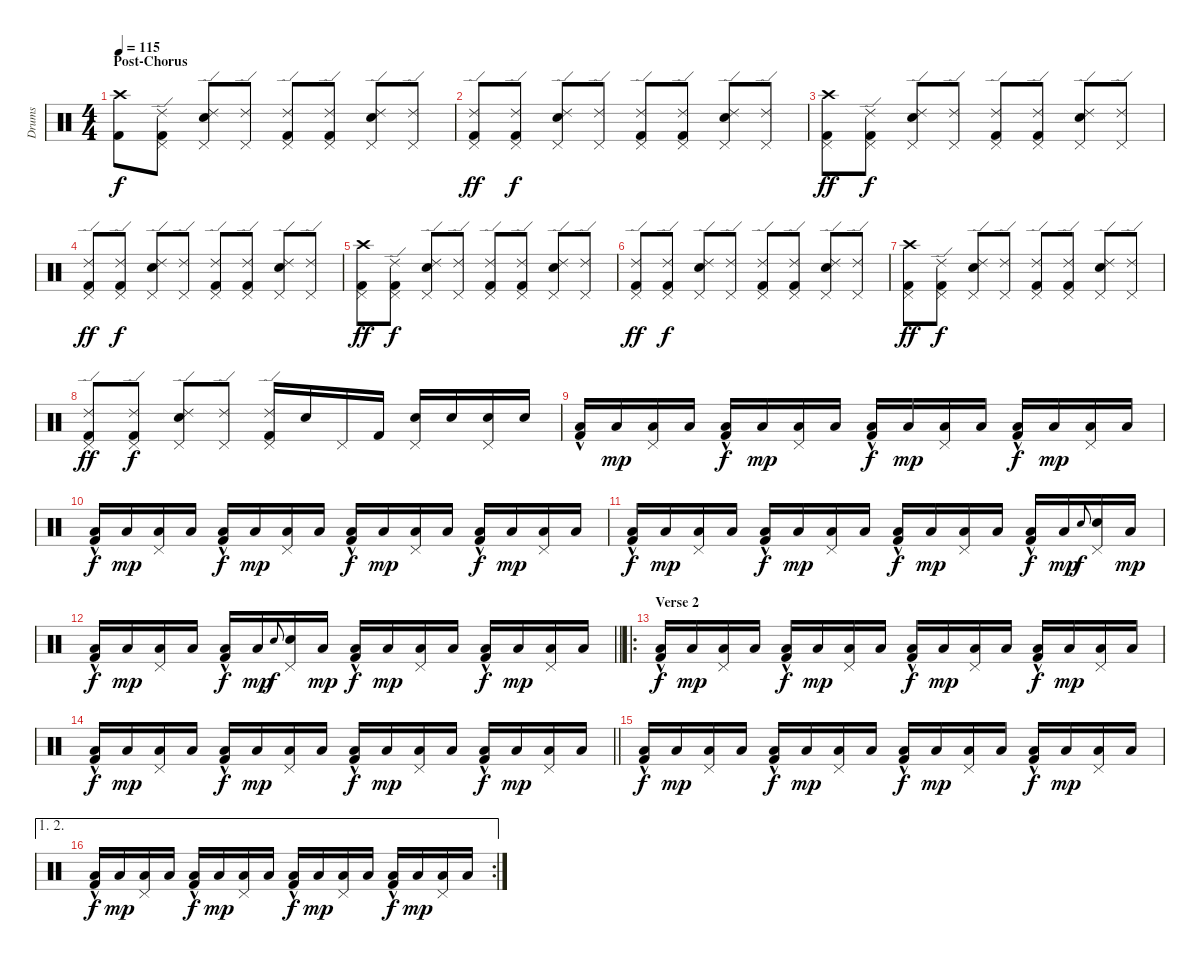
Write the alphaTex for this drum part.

\track ("Drums" "Drums") {instrument percussion}
\staff {score}
\articulation defaults
\ts (4 4)
\section ("" "Post-Chorus")
\tempo 115
\clef neutral
\ks c
("Crash high (hit)" "Kick (hit) 2").8{dy f} ("Pedal Hi-Hat (hit)" "Ride (edge) 2" "Kick (hit) 2").8 ("Pedal Hi-Hat (hit)" "Ride (edge) 2" "Snare (hit) 2").8 ("Pedal Hi-Hat (hit)" "Ride (edge) 2").8 ("Pedal Hi-Hat (hit)" "Ride (edge) 2" "Kick (hit) 2").8 ("Pedal Hi-Hat (hit)" "Ride (edge) 2" "Kick (hit) 2").8 ("Pedal Hi-Hat (hit)" "Ride (edge) 2" "Snare (hit) 2").8 ("Pedal Hi-Hat (hit)" "Ride (edge) 2").8 |
("Pedal Hi-Hat (hit)" "Ride (edge) 2" "Kick (hit) 2").8{dy ff} ("Pedal Hi-Hat (hit)" "Ride (edge) 2" "Kick (hit) 2").8{dy f} ("Pedal Hi-Hat (hit)" "Ride (edge) 2" "Snare (hit) 2").8 ("Pedal Hi-Hat (hit)" "Ride (edge) 2").8 ("Pedal Hi-Hat (hit)" "Ride (edge) 2" "Kick (hit) 2").8 ("Pedal Hi-Hat (hit)" "Ride (edge) 2" "Kick (hit) 2").8 ("Pedal Hi-Hat (hit)" "Ride (edge) 2" "Snare (hit) 2").8 ("Pedal Hi-Hat (hit)" "Ride (edge) 2").8 |
("Crash high (hit)" "Pedal Hi-Hat (hit)" "Kick (hit) 2").8{dy ff} ("Pedal Hi-Hat (hit)" "Ride (edge) 2" "Kick (hit) 2").8{dy f} ("Pedal Hi-Hat (hit)" "Ride (edge) 2" "Snare (hit) 2").8 ("Pedal Hi-Hat (hit)" "Ride (edge) 2").8 ("Pedal Hi-Hat (hit)" "Ride (edge) 2" "Kick (hit) 2").8 ("Pedal Hi-Hat (hit)" "Ride (edge) 2" "Kick (hit) 2").8 ("Pedal Hi-Hat (hit)" "Ride (edge) 2" "Snare (hit) 2").8 ("Pedal Hi-Hat (hit)" "Ride (edge) 2").8 |
("Pedal Hi-Hat (hit)" "Ride (edge) 2" "Kick (hit) 2").8{dy ff} ("Pedal Hi-Hat (hit)" "Ride (edge) 2" "Kick (hit) 2").8{dy f} ("Pedal Hi-Hat (hit)" "Ride (edge) 2" "Snare (hit) 2").8 ("Pedal Hi-Hat (hit)" "Ride (edge) 2").8 ("Pedal Hi-Hat (hit)" "Ride (edge) 2" "Kick (hit) 2").8 ("Pedal Hi-Hat (hit)" "Ride (edge) 2" "Kick (hit) 2").8 ("Pedal Hi-Hat (hit)" "Ride (edge) 2" "Snare (hit) 2").8 ("Pedal Hi-Hat (hit)" "Ride (edge) 2").8 |
("Crash high (hit)" "Pedal Hi-Hat (hit)" "Kick (hit) 2").8{dy ff} ("Pedal Hi-Hat (hit)" "Ride (edge) 2" "Kick (hit) 2").8{dy f} ("Pedal Hi-Hat (hit)" "Ride (edge) 2" "Snare (hit) 2").8 ("Pedal Hi-Hat (hit)" "Ride (edge) 2").8 ("Pedal Hi-Hat (hit)" "Ride (edge) 2" "Kick (hit) 2").8 ("Pedal Hi-Hat (hit)" "Ride (edge) 2" "Kick (hit) 2").8 ("Pedal Hi-Hat (hit)" "Ride (edge) 2" "Snare (hit) 2").8 ("Pedal Hi-Hat (hit)" "Ride (edge) 2").8 |
("Pedal Hi-Hat (hit)" "Ride (edge) 2" "Kick (hit) 2").8{dy ff} ("Pedal Hi-Hat (hit)" "Ride (edge) 2" "Kick (hit) 2").8{dy f} ("Pedal Hi-Hat (hit)" "Ride (edge) 2" "Snare (hit) 2").8 ("Pedal Hi-Hat (hit)" "Ride (edge) 2").8 ("Pedal Hi-Hat (hit)" "Ride (edge) 2" "Kick (hit) 2").8 ("Pedal Hi-Hat (hit)" "Ride (edge) 2" "Kick (hit) 2").8 ("Pedal Hi-Hat (hit)" "Ride (edge) 2" "Snare (hit) 2").8 ("Pedal Hi-Hat (hit)" "Ride (edge) 2").8 |
("Crash high (hit)" "Pedal Hi-Hat (hit)" "Kick (hit) 2").8{dy ff} ("Pedal Hi-Hat (hit)" "Ride (edge) 2" "Kick (hit) 2").8{dy f} ("Pedal Hi-Hat (hit)" "Ride (edge) 2" "Snare (hit) 2").8 ("Pedal Hi-Hat (hit)" "Ride (edge) 2").8 ("Pedal Hi-Hat (hit)" "Ride (edge) 2" "Kick (hit) 2").8 ("Pedal Hi-Hat (hit)" "Ride (edge) 2" "Kick (hit) 2").8 ("Pedal Hi-Hat (hit)" "Ride (edge) 2" "Snare (hit) 2").8 ("Pedal Hi-Hat (hit)" "Ride (edge) 2").8 |
("Pedal Hi-Hat (hit)" "Ride (edge) 2" "Kick (hit) 2").8{dy ff} ("Pedal Hi-Hat (hit)" "Ride (edge) 2" "Kick (hit) 2").8{dy f} ("Pedal Hi-Hat (hit)" "Ride (edge) 2" "Snare (hit) 2").8 ("Pedal Hi-Hat (hit)" "Ride (edge) 2").8 ("Pedal Hi-Hat (hit)" "Ride (edge) 2" "Kick (hit) 2").16 "Snare (hit) 2".16 "Pedal Hi-Hat (hit)".16 "Kick (hit) 2".16 ("Pedal Hi-Hat (hit)" "Snare (hit) 2").16 "Snare (hit) 2".16 ("Pedal Hi-Hat (hit)" "Snare (hit) 2").16 "Snare (hit) 2".16 |
("Low Floor Tom (hit)"{hac} "Kick (hit) 2").16 "Low Floor Tom (hit)".16{dy mp} ("Pedal Hi-Hat (hit)" "Low Floor Tom (hit)").16 "Low Floor Tom (hit)".16 ("Low Floor Tom (hit)"{hac} "Kick (hit) 2").16{dy f} "Low Floor Tom (hit)".16{dy mp} ("Pedal Hi-Hat (hit)" "Low Floor Tom (hit)").16 "Low Floor Tom (hit)".16 ("Low Floor Tom (hit)"{hac} "Kick (hit) 2").16{dy f} "Low Floor Tom (hit)".16{dy mp} ("Pedal Hi-Hat (hit)" "Low Floor Tom (hit)").16 "Low Floor Tom (hit)".16 ("Low Floor Tom (hit)"{hac} "Kick (hit) 2").16{dy f} "Low Floor Tom (hit)".16{dy mp} ("Pedal Hi-Hat (hit)" "Low Floor Tom (hit)").16 "Low Floor Tom (hit)".16 |
("Low Floor Tom (hit)"{hac} "Kick (hit) 2").16{dy f} "Low Floor Tom (hit)".16{dy mp} ("Pedal Hi-Hat (hit)" "Low Floor Tom (hit)").16 "Low Floor Tom (hit)".16 ("Low Floor Tom (hit)"{hac} "Kick (hit) 2").16{dy f} "Low Floor Tom (hit)".16{dy mp} ("Pedal Hi-Hat (hit)" "Low Floor Tom (hit)").16 "Low Floor Tom (hit)".16 ("Low Floor Tom (hit)"{hac} "Kick (hit) 2").16{dy f} "Low Floor Tom (hit)".16{dy mp} ("Pedal Hi-Hat (hit)" "Low Floor Tom (hit)").16 "Low Floor Tom (hit)".16 ("Low Floor Tom (hit)"{hac} "Kick (hit) 2").16{dy f} "Low Floor Tom (hit)".16{dy mp} ("Pedal Hi-Hat (hit)" "Low Floor Tom (hit)").16 "Low Floor Tom (hit)".16 |
("Low Floor Tom (hit)"{hac} "Kick (hit) 2").16{dy f} "Low Floor Tom (hit)".16{dy mp} ("Pedal Hi-Hat (hit)" "Low Floor Tom (hit)").16 "Low Floor Tom (hit)".16 ("Low Floor Tom (hit)"{hac} "Kick (hit) 2").16{dy f} "Low Floor Tom (hit)".16{dy mp} ("Pedal Hi-Hat (hit)" "Low Floor Tom (hit)").16 "Low Floor Tom (hit)".16 ("Low Floor Tom (hit)"{hac} "Kick (hit) 2").16{dy f} "Low Floor Tom (hit)".16{dy mp} ("Pedal Hi-Hat (hit)" "Low Floor Tom (hit)").16 "Low Floor Tom (hit)".16 ("Low Floor Tom (hit)"{hac} "Kick (hit) 2").16{dy f} "Low Floor Tom (hit)".16{dy mp} "Snare (hit) 2".8{gr onbeat dy f} ("Pedal Hi-Hat (hit)" "Snare (hit) 2").16 "Low Floor Tom (hit)".16{dy mp} |
\barLineRight lightlight
("Low Floor Tom (hit)"{hac} "Kick (hit) 2").16{dy f} "Low Floor Tom (hit)".16{dy mp} ("Pedal Hi-Hat (hit)" "Low Floor Tom (hit)").16 "Low Floor Tom (hit)".16 ("Low Floor Tom (hit)"{hac} "Kick (hit) 2").16{dy f} "Low Floor Tom (hit)".16{dy mp} "Snare (hit) 2".8{gr onbeat dy f} ("Pedal Hi-Hat (hit)" "Snare (hit) 2").16 "Low Floor Tom (hit)".16{dy mp} ("Low Floor Tom (hit)"{hac} "Kick (hit) 2").16{dy f} "Low Floor Tom (hit)".16{dy mp} ("Pedal Hi-Hat (hit)" "Low Floor Tom (hit)").16 "Low Floor Tom (hit)".16 ("Low Floor Tom (hit)"{hac} "Kick (hit) 2").16{dy f} "Low Floor Tom (hit)".16{dy mp} ("Pedal Hi-Hat (hit)" "Low Floor Tom (hit)").16 "Low Floor Tom (hit)".16 |
\ro
\section ("" "Verse 2")
("Low Floor Tom (hit)"{hac} "Kick (hit) 2").16{dy f} "Low Floor Tom (hit)".16{dy mp} ("Pedal Hi-Hat (hit)" "Low Floor Tom (hit)").16 "Low Floor Tom (hit)".16 ("Low Floor Tom (hit)"{hac} "Kick (hit) 2").16{dy f} "Low Floor Tom (hit)".16{dy mp} ("Pedal Hi-Hat (hit)" "Low Floor Tom (hit)").16 "Low Floor Tom (hit)".16 ("Low Floor Tom (hit)"{hac} "Kick (hit) 2").16{dy f} "Low Floor Tom (hit)".16{dy mp} ("Pedal Hi-Hat (hit)" "Low Floor Tom (hit)").16 "Low Floor Tom (hit)".16 ("Low Floor Tom (hit)"{hac} "Kick (hit) 2").16{dy f} "Low Floor Tom (hit)".16{dy mp} ("Pedal Hi-Hat (hit)" "Low Floor Tom (hit)").16 "Low Floor Tom (hit)".16 |
\barLineRight lightlight
("Low Floor Tom (hit)"{hac} "Kick (hit) 2").16{dy f} "Low Floor Tom (hit)".16{dy mp} ("Pedal Hi-Hat (hit)" "Low Floor Tom (hit)").16 "Low Floor Tom (hit)".16 ("Low Floor Tom (hit)"{hac} "Kick (hit) 2").16{dy f} "Low Floor Tom (hit)".16{dy mp} ("Pedal Hi-Hat (hit)" "Low Floor Tom (hit)").16 "Low Floor Tom (hit)".16 ("Low Floor Tom (hit)"{hac} "Kick (hit) 2").16{dy f} "Low Floor Tom (hit)".16{dy mp} ("Pedal Hi-Hat (hit)" "Low Floor Tom (hit)").16 "Low Floor Tom (hit)".16 ("Low Floor Tom (hit)"{hac} "Kick (hit) 2").16{dy f} "Low Floor Tom (hit)".16{dy mp} ("Pedal Hi-Hat (hit)" "Low Floor Tom (hit)").16 "Low Floor Tom (hit)".16 |
("Low Floor Tom (hit)"{hac} "Kick (hit) 2").16{dy f} "Low Floor Tom (hit)".16{dy mp} ("Pedal Hi-Hat (hit)" "Low Floor Tom (hit)").16 "Low Floor Tom (hit)".16 ("Low Floor Tom (hit)"{hac} "Kick (hit) 2").16{dy f} "Low Floor Tom (hit)".16{dy mp} ("Pedal Hi-Hat (hit)" "Low Floor Tom (hit)").16 "Low Floor Tom (hit)".16 ("Low Floor Tom (hit)"{hac} "Kick (hit) 2").16{dy f} "Low Floor Tom (hit)".16{dy mp} ("Pedal Hi-Hat (hit)" "Low Floor Tom (hit)").16 "Low Floor Tom (hit)".16 ("Low Floor Tom (hit)"{hac} "Kick (hit) 2").16{dy f} "Low Floor Tom (hit)".16{dy mp} ("Pedal Hi-Hat (hit)" "Low Floor Tom (hit)").16 "Low Floor Tom (hit)".16 |
\ae (1 2)
\rc 2
("Low Floor Tom (hit)"{hac} "Kick (hit) 2").16{dy f} "Low Floor Tom (hit)".16{dy mp} ("Pedal Hi-Hat (hit)" "Low Floor Tom (hit)").16 "Low Floor Tom (hit)".16 ("Low Floor Tom (hit)"{hac} "Kick (hit) 2").16{dy f} "Low Floor Tom (hit)".16{dy mp} ("Pedal Hi-Hat (hit)" "Low Floor Tom (hit)").16 "Low Floor Tom (hit)".16 ("Low Floor Tom (hit)"{hac} "Kick (hit) 2").16{dy f} "Low Floor Tom (hit)".16{dy mp} ("Pedal Hi-Hat (hit)" "Low Floor Tom (hit)").16 "Low Floor Tom (hit)".16 ("Low Floor Tom (hit)"{hac} "Kick (hit) 2").16{dy f} "Low Floor Tom (hit)".16{dy mp} ("Pedal Hi-Hat (hit)" "Low Floor Tom (hit)").16 "Low Floor Tom (hit)".16
